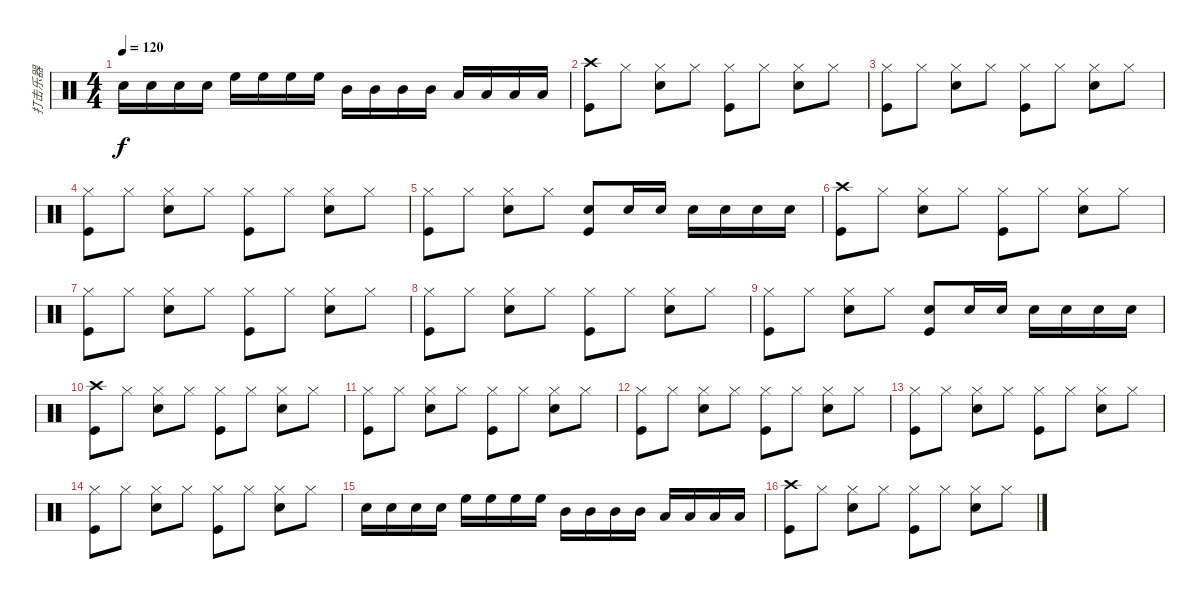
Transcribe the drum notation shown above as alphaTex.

\track ("打击乐器" "打击乐器") {instrument percussion}
\staff {score}
\articulation defaults
\ts (4 4)
\tempo 120
\clef neutral
\ks c "Electric Snare (hit)".16{dy f} "Electric Snare (hit)".16 "Electric Snare (hit)".16 "Electric Snare (hit)".16 "High Floor Tom (hit)".16 "High Floor Tom (hit)".16 "High Floor Tom (hit)".16 "High Floor Tom (hit)".16 "Mid Tom (hit)".16 "Mid Tom (hit)".16 "Mid Tom (hit)".16 "Mid Tom (hit)".16 "Low Floor Tom (hit)".16 "Low Floor Tom (hit)".16 "Low Floor Tom (hit)".16 "Low Floor Tom (hit)".16
|
("Crash high (hit)" "Kick (hit)").8 "Hi-Hat (closed)".8 ("Hi-Hat (closed)" "Electric Snare (hit)").8 "Hi-Hat (closed)".8 ("Hi-Hat (closed)" "Kick (hit)").8 "Hi-Hat (closed)".8 ("Hi-Hat (closed)" "Electric Snare (hit)").8 "Hi-Hat (closed)".8 |
("Hi-Hat (closed)" "Kick (hit)").8 "Hi-Hat (closed)".8 ("Hi-Hat (closed)" "Electric Snare (hit)").8 "Hi-Hat (closed)".8 ("Hi-Hat (closed)" "Kick (hit)").8 "Hi-Hat (closed)".8 ("Hi-Hat (closed)" "Electric Snare (hit)").8 "Hi-Hat (closed)".8 |
("Hi-Hat (closed)" "Kick (hit)").8 "Hi-Hat (closed)".8 ("Hi-Hat (closed)" "Electric Snare (hit)").8 "Hi-Hat (closed)".8 ("Hi-Hat (closed)" "Kick (hit)").8 "Hi-Hat (closed)".8 ("Hi-Hat (closed)" "Electric Snare (hit)").8 "Hi-Hat (closed)".8 |
("Hi-Hat (closed)" "Kick (hit)").8 "Hi-Hat (closed)".8 ("Hi-Hat (closed)" "Electric Snare (hit)").8 "Hi-Hat (closed)".8 ("Electric Snare (hit)" "Kick (hit)").8 "Electric Snare (hit)".16 "Electric Snare (hit)".16 "Electric Snare (hit)".16 "Electric Snare (hit)".16 "Electric Snare (hit)".16 "Electric Snare (hit)".16 |
("Crash high (hit)" "Kick (hit)").8 "Hi-Hat (closed)".8 ("Hi-Hat (closed)" "Electric Snare (hit)").8 "Hi-Hat (closed)".8 ("Hi-Hat (closed)" "Kick (hit)").8 "Hi-Hat (closed)".8 ("Hi-Hat (closed)" "Electric Snare (hit)").8 "Hi-Hat (closed)".8 |
("Hi-Hat (closed)" "Kick (hit)").8 "Hi-Hat (closed)".8 ("Hi-Hat (closed)" "Electric Snare (hit)").8 "Hi-Hat (closed)".8 ("Hi-Hat (closed)" "Kick (hit)").8 "Hi-Hat (closed)".8 ("Hi-Hat (closed)" "Electric Snare (hit)").8 "Hi-Hat (closed)".8 |
("Hi-Hat (closed)" "Kick (hit)").8 "Hi-Hat (closed)".8 ("Hi-Hat (closed)" "Electric Snare (hit)").8 "Hi-Hat (closed)".8 ("Hi-Hat (closed)" "Kick (hit)").8 "Hi-Hat (closed)".8 ("Hi-Hat (closed)" "Electric Snare (hit)").8 "Hi-Hat (closed)".8 |
("Hi-Hat (closed)" "Kick (hit)").8 "Hi-Hat (closed)".8 ("Hi-Hat (closed)" "Electric Snare (hit)").8 "Hi-Hat (closed)".8 ("Electric Snare (hit)" "Kick (hit)").8 "Electric Snare (hit)".16 "Electric Snare (hit)".16 "Electric Snare (hit)".16 "Electric Snare (hit)".16 "Electric Snare (hit)".16 "Electric Snare (hit)".16 |
("Crash high (hit)" "Kick (hit)").8 "Hi-Hat (closed)".8 ("Hi-Hat (closed)" "Electric Snare (hit)").8 "Hi-Hat (closed)".8 ("Hi-Hat (closed)" "Kick (hit)").8 "Hi-Hat (closed)".8 ("Hi-Hat (closed)" "Electric Snare (hit)").8 "Hi-Hat (closed)".8 |
("Hi-Hat (closed)" "Kick (hit)").8 "Hi-Hat (closed)".8 ("Hi-Hat (closed)" "Electric Snare (hit)").8 "Hi-Hat (closed)".8 ("Hi-Hat (closed)" "Kick (hit)").8 "Hi-Hat (closed)".8 ("Hi-Hat (closed)" "Electric Snare (hit)").8 "Hi-Hat (closed)".8 |
("Hi-Hat (closed)" "Kick (hit)").8 "Hi-Hat (closed)".8 ("Hi-Hat (closed)" "Electric Snare (hit)").8 "Hi-Hat (closed)".8 ("Hi-Hat (closed)" "Kick (hit)").8 "Hi-Hat (closed)".8 ("Hi-Hat (closed)" "Electric Snare (hit)").8 "Hi-Hat (closed)".8 |
("Hi-Hat (closed)" "Kick (hit)").8 "Hi-Hat (closed)".8 ("Hi-Hat (closed)" "Electric Snare (hit)").8 "Hi-Hat (closed)".8 ("Hi-Hat (closed)" "Kick (hit)").8 "Hi-Hat (closed)".8 ("Hi-Hat (closed)" "Electric Snare (hit)").8 "Hi-Hat (closed)".8 |
("Hi-Hat (closed)" "Kick (hit)").8 "Hi-Hat (closed)".8 ("Hi-Hat (closed)" "Electric Snare (hit)").8 "Hi-Hat (closed)".8 ("Hi-Hat (closed)" "Kick (hit)").8 "Hi-Hat (closed)".8 ("Hi-Hat (closed)" "Electric Snare (hit)").8 "Hi-Hat (closed)".8 |
"Electric Snare (hit)".16 "Electric Snare (hit)".16 "Electric Snare (hit)".16 "Electric Snare (hit)".16 "High Floor Tom (hit)".16 "High Floor Tom (hit)".16 "High Floor Tom (hit)".16 "High Floor Tom (hit)".16 "Mid Tom (hit)".16 "Mid Tom (hit)".16 "Mid Tom (hit)".16 "Mid Tom (hit)".16 "Low Floor Tom (hit)".16 "Low Floor Tom (hit)".16 "Low Floor Tom (hit)".16 "Low Floor Tom (hit)".16 |
("Crash high (hit)" "Kick (hit)").8 "Hi-Hat (closed)".8 ("Hi-Hat (closed)" "Electric Snare (hit)").8 "Hi-Hat (closed)".8 ("Hi-Hat (closed)" "Kick (hit)").8 "Hi-Hat (closed)".8 ("Hi-Hat (closed)" "Electric Snare (hit)").8 "Hi-Hat (closed)".8
